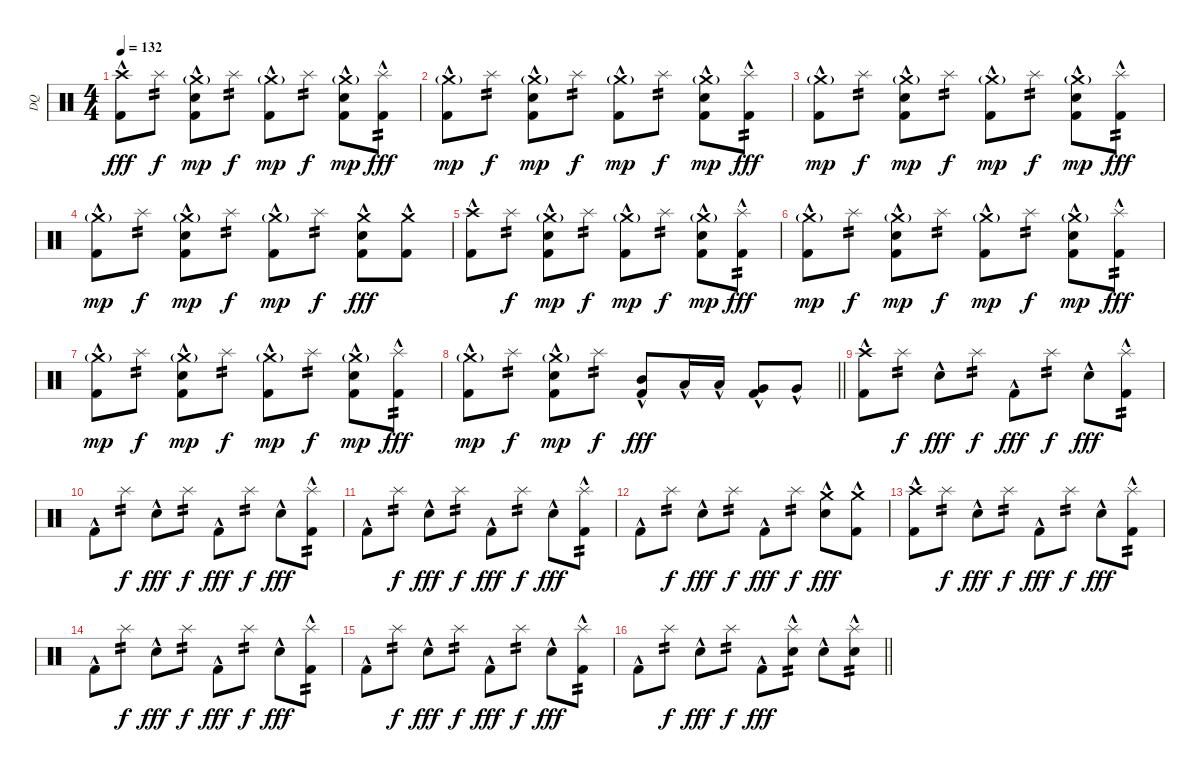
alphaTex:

\track ("DQ" "DQ") {instrument percussion}
\staff {score}
\articulation defaults
\ts (4 4)
\section ("" "")
\tempo 132
\clef neutral
\ks c
("Kick (hit) 2"{hac} "Crash high (hit)").8{dy fff} "Splash (hit)".8{tp 2 dy f} ("Kick (hit) 2"{hac} "Snare (hit) 2"{hac} "Crash medium (hit)"{g}).8{dy mp} "Splash (hit)".8{tp 2 dy f} ("Kick (hit) 2"{hac} "Crash medium (hit)"{g}).8{dy mp} "Splash (hit)".8{tp 2 dy f} ("Kick (hit) 2"{hac} "Snare (hit) 2"{hac} "Crash medium (hit)"{g}).8{dy mp} ("Kick (hit) 2"{hac} "Splash (hit)").8{tp 2 dy fff} |
("Kick (hit) 2"{hac} "Crash medium (hit)"{g}).8{dy mp} "Splash (hit)".8{tp 2 dy f} ("Kick (hit) 2"{hac} "Snare (hit) 2"{hac} "Crash medium (hit)"{g}).8{dy mp} "Splash (hit)".8{tp 2 dy f} ("Kick (hit) 2"{hac} "Crash medium (hit)"{g}).8{dy mp} "Splash (hit)".8{tp 2 dy f} ("Kick (hit) 2"{hac} "Snare (hit) 2"{hac} "Crash medium (hit)"{g}).8{dy mp} ("Kick (hit) 2"{hac} "Splash (hit)").8{tp 2 dy fff} |
("Kick (hit) 2"{hac} "Crash medium (hit)"{g}).8{dy mp} "Splash (hit)".8{tp 2 dy f} ("Kick (hit) 2"{hac} "Snare (hit) 2"{hac} "Crash medium (hit)"{g}).8{dy mp} "Splash (hit)".8{tp 2 dy f} ("Kick (hit) 2"{hac} "Crash medium (hit)"{g}).8{dy mp} "Splash (hit)".8{tp 2 dy f} ("Kick (hit) 2"{hac} "Snare (hit) 2"{hac} "Crash medium (hit)"{g}).8{dy mp} ("Kick (hit) 2"{hac} "Splash (hit)").8{tp 2 dy fff} |
("Kick (hit) 2"{hac} "Crash medium (hit)"{g}).8{dy mp} "Splash (hit)".8{tp 2 dy f} ("Kick (hit) 2"{hac} "Snare (hit) 2"{hac} "Crash medium (hit)"{g}).8{dy mp} "Splash (hit)".8{tp 2 dy f} ("Kick (hit) 2"{hac} "Crash medium (hit)"{g}).8{dy mp} "Splash (hit)".8{tp 2 dy f} ("Kick (hit) 2"{hac} "Snare (hit) 2"{hac} "Crash medium (hit)").8{dy fff} ("Kick (hit) 2"{hac} "Crash medium (hit)").8 |
("Kick (hit) 2"{hac} "Crash high (hit)").8 "Splash (hit)".8{tp 2 dy f} ("Kick (hit) 2"{hac} "Snare (hit) 2"{hac} "Crash medium (hit)"{g}).8{dy mp} "Splash (hit)".8{tp 2 dy f} ("Kick (hit) 2"{hac} "Crash medium (hit)"{g}).8{dy mp} "Splash (hit)".8{tp 2 dy f} ("Kick (hit) 2"{hac} "Snare (hit) 2"{hac} "Crash medium (hit)"{g}).8{dy mp} ("Kick (hit) 2"{hac} "Splash (hit)").8{tp 2 dy fff} |
("Kick (hit) 2"{hac} "Crash medium (hit)"{g}).8{dy mp} "Splash (hit)".8{tp 2 dy f} ("Kick (hit) 2"{hac} "Snare (hit) 2"{hac} "Crash medium (hit)"{g}).8{dy mp} "Splash (hit)".8{tp 2 dy f} ("Kick (hit) 2"{hac} "Crash medium (hit)"{g}).8{dy mp} "Splash (hit)".8{tp 2 dy f} ("Kick (hit) 2"{hac} "Snare (hit) 2"{hac} "Crash medium (hit)"{g}).8{dy mp} ("Kick (hit) 2"{hac} "Splash (hit)").8{tp 2 dy fff} |
("Kick (hit) 2"{hac} "Crash medium (hit)"{g}).8{dy mp} "Splash (hit)".8{tp 2 dy f} ("Kick (hit) 2"{hac} "Snare (hit) 2"{hac} "Crash medium (hit)"{g}).8{dy mp} "Splash (hit)".8{tp 2 dy f} ("Kick (hit) 2"{hac} "Crash medium (hit)"{g}).8{dy mp} "Splash (hit)".8{tp 2 dy f} ("Kick (hit) 2"{hac} "Snare (hit) 2"{hac} "Crash medium (hit)"{g}).8{dy mp} ("Kick (hit) 2"{hac} "Splash (hit)").8{tp 2 dy fff} |
\barLineRight lightlight
("Kick (hit) 2"{hac} "Crash medium (hit)"{g}).8{dy mp} "Splash (hit)".8{tp 2 dy f} ("Kick (hit) 2"{hac} "Snare (hit) 2"{hac} "Crash medium (hit)"{g}).8{dy mp} "Splash (hit)".8{tp 2 dy f} ("Kick (hit) 2"{hac} "Mid Tom (hit)"{hac}).8{dy fff} "Low Tom (hit)"{hac}.16 "Low Tom (hit)"{hac}.16 ("Kick (hit) 2"{hac} "Very Low Tom (hit)"{hac}).8 "Very Low Tom (hit)"{hac}.8 |
\section ("" "")
("Kick (hit) 2"{hac} "Crash high (hit)").8 "Splash (hit)".8{tp 2 dy f} "Snare (hit) 2"{hac}.8{dy fff} "Splash (hit)".8{tp 2 dy f} "Kick (hit) 2"{hac}.8{dy fff} "Splash (hit)".8{tp 2 dy f} "Snare (hit) 2"{hac}.8{dy fff} ("Kick (hit) 2"{hac} "Splash (hit)").8{tp 2} |
"Kick (hit) 2"{hac}.8 "Splash (hit)".8{tp 2 dy f} "Snare (hit) 2"{hac}.8{dy fff} "Splash (hit)".8{tp 2 dy f} "Kick (hit) 2"{hac}.8{dy fff} "Splash (hit)".8{tp 2 dy f} "Snare (hit) 2"{hac}.8{dy fff} ("Kick (hit) 2"{hac} "Splash (hit)").8{tp 2} |
"Kick (hit) 2"{hac}.8 "Splash (hit)".8{tp 2 dy f} "Snare (hit) 2"{hac}.8{dy fff} "Splash (hit)".8{tp 2 dy f} "Kick (hit) 2"{hac}.8{dy fff} "Splash (hit)".8{tp 2 dy f} "Snare (hit) 2"{hac}.8{dy fff} ("Kick (hit) 2"{hac} "Splash (hit)").8{tp 2} |
"Kick (hit) 2"{hac}.8 "Splash (hit)".8{tp 2 dy f} "Snare (hit) 2"{hac}.8{dy fff} "Splash (hit)".8{tp 2 dy f} "Kick (hit) 2"{hac}.8{dy fff} "Splash (hit)".8{tp 2 dy f} ("Snare (hit) 2"{hac} "Crash medium (hit)").8{dy fff} ("Kick (hit) 2"{hac} "Crash medium (hit)").8 |
("Kick (hit) 2"{hac} "Crash high (hit)").8 "Splash (hit)".8{tp 2 dy f} "Snare (hit) 2"{hac}.8{dy fff} "Splash (hit)".8{tp 2 dy f} "Kick (hit) 2"{hac}.8{dy fff} "Splash (hit)".8{tp 2 dy f} "Snare (hit) 2"{hac}.8{dy fff} ("Kick (hit) 2"{hac} "Splash (hit)").8{tp 2} |
"Kick (hit) 2"{hac}.8 "Splash (hit)".8{tp 2 dy f} "Snare (hit) 2"{hac}.8{dy fff} "Splash (hit)".8{tp 2 dy f} "Kick (hit) 2"{hac}.8{dy fff} "Splash (hit)".8{tp 2 dy f} "Snare (hit) 2"{hac}.8{dy fff} ("Kick (hit) 2"{hac} "Splash (hit)").8{tp 2} |
"Kick (hit) 2"{hac}.8 "Splash (hit)".8{tp 2 dy f} "Snare (hit) 2"{hac}.8{dy fff} "Splash (hit)".8{tp 2 dy f} "Kick (hit) 2"{hac}.8{dy fff} "Splash (hit)".8{tp 2 dy f} "Snare (hit) 2"{hac}.8{dy fff} ("Kick (hit) 2"{hac} "Splash (hit)").8{tp 2} |
\barLineRight lightlight "Kick (hit) 2"{hac}.8 "Splash (hit)".8{tp 2 dy f} "Snare (hit) 2"{hac}.8{dy fff} "Splash (hit)".8{tp 2 dy f} "Kick (hit) 2"{hac}.8{dy fff}
("Snare (hit) 2"{hac} "Splash (hit)").8{tp 2} "Snare (hit) 2"{hac}.8 ("Snare (hit) 2"{hac} "Splash (hit)").8{tp 2}
